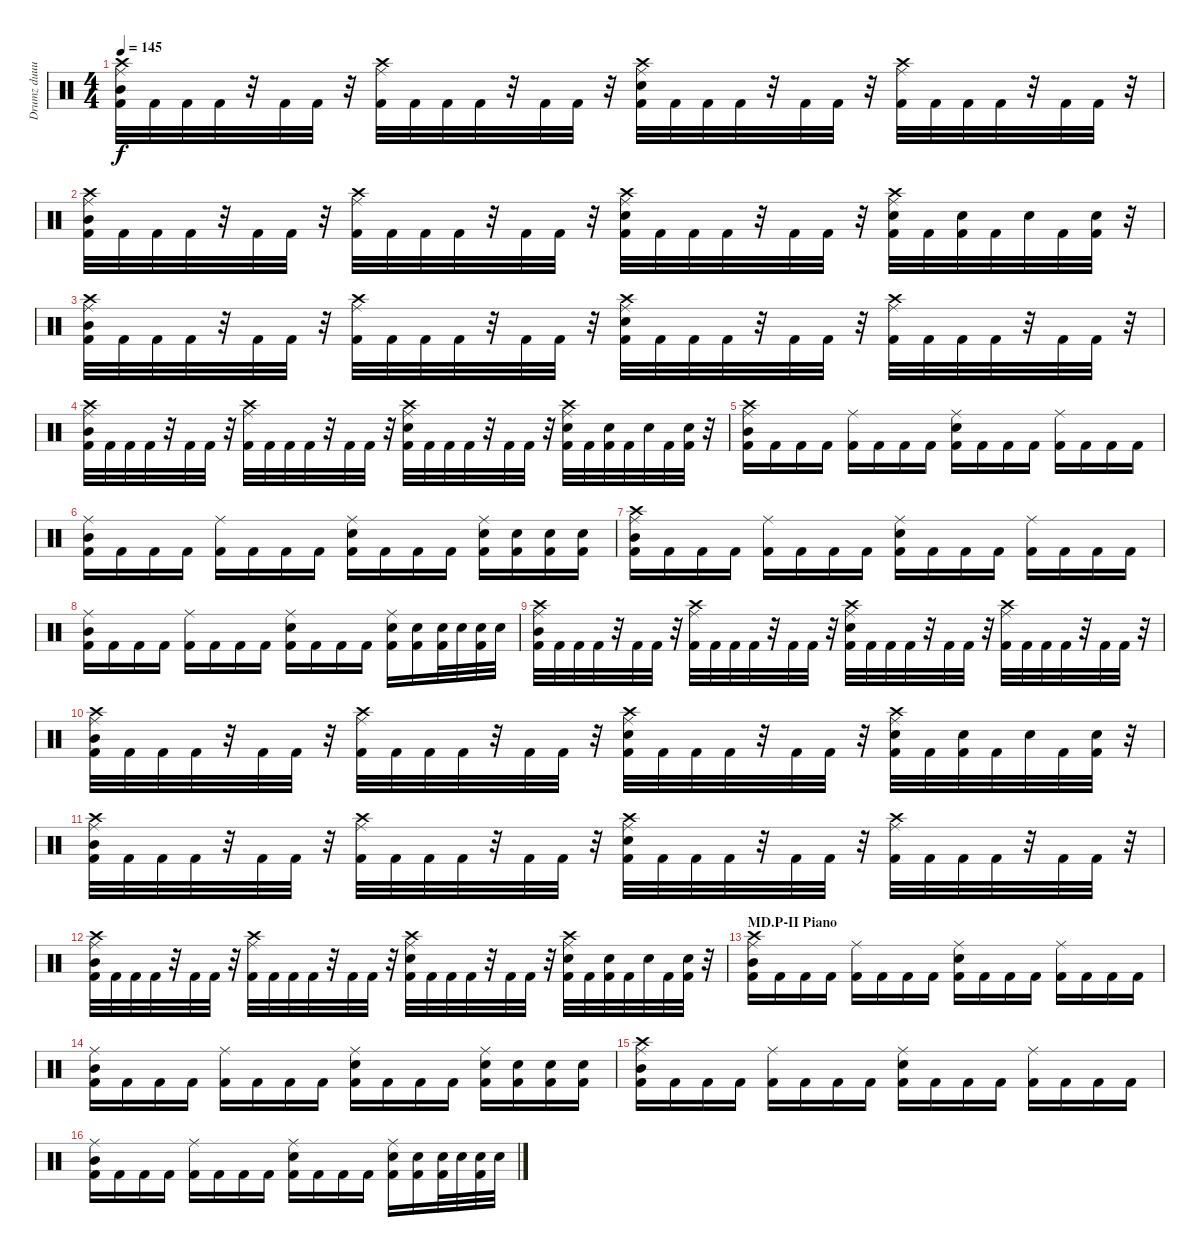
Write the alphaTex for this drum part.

\track ("Drumz duuuuude" "Drumz duuu") {instrument percussion}
\staff {score}
\articulation defaults
\ts (4 4)
\tempo 145
\clef neutral
\ks c
("Crash high (hit)" "Ride (middle)" "Kick (hit) 2" "Mid Tom (hit)").32{dy f} "Kick (hit) 2".32 "Kick (hit) 2".32 "Kick (hit) 2".32 r.32 "Kick (hit) 2".32 "Kick (hit) 2".32 r.32 ("Crash high (hit)" "Ride (middle)" "Kick (hit) 2").32 "Kick (hit) 2".32 "Kick (hit) 2".32 "Kick (hit) 2".32 r.32 "Kick (hit) 2".32 "Kick (hit) 2".32 r.32 ("Crash high (hit)" "Ride (middle)" "Kick (hit) 2" "Electric Snare (hit)").32 "Kick (hit) 2".32 "Kick (hit) 2".32 "Kick (hit) 2".32 r.32 "Kick (hit) 2".32 "Kick (hit) 2".32 r.32 ("Crash high (hit)" "Ride (middle)" "Kick (hit) 2").32 "Kick (hit) 2".32 "Kick (hit) 2".32 "Kick (hit) 2".32 r.32 "Kick (hit) 2".32 "Kick (hit) 2".32 r.32 |
("Crash high (hit)" "Ride (middle)" "Kick (hit) 2" "Mid Tom (hit)").32 "Kick (hit) 2".32 "Kick (hit) 2".32 "Kick (hit) 2".32 r.32 "Kick (hit) 2".32 "Kick (hit) 2".32 r.32 ("Crash high (hit)" "Ride (middle)" "Kick (hit) 2").32 "Kick (hit) 2".32 "Kick (hit) 2".32 "Kick (hit) 2".32 r.32 "Kick (hit) 2".32 "Kick (hit) 2".32 r.32 ("Crash high (hit)" "Ride (middle)" "Kick (hit) 2" "Electric Snare (hit)").32 "Kick (hit) 2".32 "Kick (hit) 2".32 "Kick (hit) 2".32 r.32 "Kick (hit) 2".32 "Kick (hit) 2".32 r.32 ("Crash high (hit)" "Ride (middle)" "Kick (hit) 2" "Electric Snare (hit)").32 "Kick (hit) 2".32 ("Kick (hit) 2" "Electric Snare (hit)").32 "Kick (hit) 2".32 "Electric Snare (hit)".32 "Kick (hit) 2".32 ("Kick (hit) 2" "Electric Snare (hit)").32 r.32 |
("Crash high (hit)" "Ride (middle)" "Kick (hit) 2" "Mid Tom (hit)").32 "Kick (hit) 2".32 "Kick (hit) 2".32 "Kick (hit) 2".32 r.32 "Kick (hit) 2".32 "Kick (hit) 2".32 r.32 ("Crash high (hit)" "Ride (middle)" "Kick (hit) 2").32 "Kick (hit) 2".32 "Kick (hit) 2".32 "Kick (hit) 2".32 r.32 "Kick (hit) 2".32 "Kick (hit) 2".32 r.32 ("Crash high (hit)" "Ride (middle)" "Kick (hit) 2" "Electric Snare (hit)").32 "Kick (hit) 2".32 "Kick (hit) 2".32 "Kick (hit) 2".32 r.32 "Kick (hit) 2".32 "Kick (hit) 2".32 r.32 ("Crash high (hit)" "Ride (middle)" "Kick (hit) 2").32 "Kick (hit) 2".32 "Kick (hit) 2".32 "Kick (hit) 2".32 r.32 "Kick (hit) 2".32 "Kick (hit) 2".32 r.32 |
("Crash high (hit)" "Ride (middle)" "Kick (hit) 2" "Mid Tom (hit)").32 "Kick (hit) 2".32 "Kick (hit) 2".32 "Kick (hit) 2".32 r.32 "Kick (hit) 2".32 "Kick (hit) 2".32 r.32 ("Crash high (hit)" "Ride (middle)" "Kick (hit) 2").32 "Kick (hit) 2".32 "Kick (hit) 2".32 "Kick (hit) 2".32 r.32 "Kick (hit) 2".32 "Kick (hit) 2".32 r.32 ("Crash high (hit)" "Ride (middle)" "Kick (hit) 2" "Electric Snare (hit)").32 "Kick (hit) 2".32 "Kick (hit) 2".32 "Kick (hit) 2".32 r.32 "Kick (hit) 2".32 "Kick (hit) 2".32 r.32 ("Crash high (hit)" "Ride (middle)" "Kick (hit) 2" "Electric Snare (hit)").32 "Kick (hit) 2".32 ("Kick (hit) 2" "Electric Snare (hit)").32 "Kick (hit) 2".32 "Electric Snare (hit)".32 "Kick (hit) 2".32 ("Kick (hit) 2" "Electric Snare (hit)").32 r.32 |
("Crash high (hit)" "Ride (middle)" "Kick (hit) 2" "Mid Tom (hit)").16 "Kick (hit) 2".16 "Kick (hit) 2".16 "Kick (hit) 2".16 ("Ride (middle)" "Kick (hit) 2").16 "Kick (hit) 2".16 "Kick (hit) 2".16 "Kick (hit) 2".16 ("Ride (middle)" "Kick (hit) 2" "Electric Snare (hit)").16 "Kick (hit) 2".16 "Kick (hit) 2".16 "Kick (hit) 2".16 ("Ride (middle)" "Kick (hit) 2").16 "Kick (hit) 2".16 "Kick (hit) 2".16 "Kick (hit) 2".16 |
("Ride (middle)" "Kick (hit) 2" "Mid Tom (hit)").16 "Kick (hit) 2".16 "Kick (hit) 2".16 "Kick (hit) 2".16 ("Ride (middle)" "Kick (hit) 2").16 "Kick (hit) 2".16 "Kick (hit) 2".16 "Kick (hit) 2".16 ("Ride (middle)" "Kick (hit) 2" "Electric Snare (hit)").16 "Kick (hit) 2".16 "Kick (hit) 2".16 "Kick (hit) 2".16 ("Ride (middle)" "Kick (hit) 2" "Electric Snare (hit)").16 ("Kick (hit) 2" "Electric Snare (hit)").16 ("Kick (hit) 2" "Electric Snare (hit)").16 ("Kick (hit) 2" "Electric Snare (hit)").16 |
("Crash high (hit)" "Ride (middle)" "Kick (hit) 2" "Mid Tom (hit)").16 "Kick (hit) 2".16 "Kick (hit) 2".16 "Kick (hit) 2".16 ("Ride (middle)" "Kick (hit) 2").16 "Kick (hit) 2".16 "Kick (hit) 2".16 "Kick (hit) 2".16 ("Ride (middle)" "Kick (hit) 2" "Electric Snare (hit)").16 "Kick (hit) 2".16 "Kick (hit) 2".16 "Kick (hit) 2".16 ("Ride (middle)" "Kick (hit) 2").16 "Kick (hit) 2".16 "Kick (hit) 2".16 "Kick (hit) 2".16 |
("Ride (middle)" "Kick (hit) 2" "Mid Tom (hit)").16 "Kick (hit) 2".16 "Kick (hit) 2".16 "Kick (hit) 2".16 ("Ride (middle)" "Kick (hit) 2").16 "Kick (hit) 2".16 "Kick (hit) 2".16 "Kick (hit) 2".16 ("Ride (middle)" "Kick (hit) 2" "Electric Snare (hit)").16 "Kick (hit) 2".16 "Kick (hit) 2".16 "Kick (hit) 2".16 ("Ride (middle)" "Kick (hit) 2" "Electric Snare (hit)").16 ("Kick (hit) 2" "Electric Snare (hit)").16 ("Kick (hit) 2" "Electric Snare (hit)").32 "Electric Snare (hit)".32 ("Kick (hit) 2" "Electric Snare (hit)").32 "Electric Snare (hit)".32 |
("Crash high (hit)" "Ride (middle)" "Kick (hit) 2" "Mid Tom (hit)").32 "Kick (hit) 2".32 "Kick (hit) 2".32 "Kick (hit) 2".32 r.32 "Kick (hit) 2".32 "Kick (hit) 2".32 r.32 ("Crash high (hit)" "Ride (middle)" "Kick (hit) 2").32 "Kick (hit) 2".32 "Kick (hit) 2".32 "Kick (hit) 2".32 r.32 "Kick (hit) 2".32 "Kick (hit) 2".32 r.32 ("Crash high (hit)" "Ride (middle)" "Kick (hit) 2" "Electric Snare (hit)").32 "Kick (hit) 2".32 "Kick (hit) 2".32 "Kick (hit) 2".32 r.32 "Kick (hit) 2".32 "Kick (hit) 2".32 r.32 ("Crash high (hit)" "Ride (middle)" "Kick (hit) 2").32 "Kick (hit) 2".32 "Kick (hit) 2".32 "Kick (hit) 2".32 r.32 "Kick (hit) 2".32 "Kick (hit) 2".32 r.32 |
("Crash high (hit)" "Ride (middle)" "Kick (hit) 2" "Mid Tom (hit)").32 "Kick (hit) 2".32 "Kick (hit) 2".32 "Kick (hit) 2".32 r.32 "Kick (hit) 2".32 "Kick (hit) 2".32 r.32 ("Crash high (hit)" "Ride (middle)" "Kick (hit) 2").32 "Kick (hit) 2".32 "Kick (hit) 2".32 "Kick (hit) 2".32 r.32 "Kick (hit) 2".32 "Kick (hit) 2".32 r.32 ("Crash high (hit)" "Ride (middle)" "Kick (hit) 2" "Electric Snare (hit)").32 "Kick (hit) 2".32 "Kick (hit) 2".32 "Kick (hit) 2".32 r.32 "Kick (hit) 2".32 "Kick (hit) 2".32 r.32 ("Crash high (hit)" "Ride (middle)" "Kick (hit) 2" "Electric Snare (hit)").32 "Kick (hit) 2".32 ("Kick (hit) 2" "Electric Snare (hit)").32 "Kick (hit) 2".32 "Electric Snare (hit)".32 "Kick (hit) 2".32 ("Kick (hit) 2" "Electric Snare (hit)").32 r.32 |
("Crash high (hit)" "Ride (middle)" "Kick (hit) 2" "Mid Tom (hit)").32 "Kick (hit) 2".32 "Kick (hit) 2".32 "Kick (hit) 2".32 r.32 "Kick (hit) 2".32 "Kick (hit) 2".32 r.32 ("Crash high (hit)" "Ride (middle)" "Kick (hit) 2").32 "Kick (hit) 2".32 "Kick (hit) 2".32 "Kick (hit) 2".32 r.32 "Kick (hit) 2".32 "Kick (hit) 2".32 r.32 ("Crash high (hit)" "Ride (middle)" "Kick (hit) 2" "Electric Snare (hit)").32 "Kick (hit) 2".32 "Kick (hit) 2".32 "Kick (hit) 2".32 r.32 "Kick (hit) 2".32 "Kick (hit) 2".32 r.32 ("Crash high (hit)" "Ride (middle)" "Kick (hit) 2").32 "Kick (hit) 2".32 "Kick (hit) 2".32 "Kick (hit) 2".32 r.32 "Kick (hit) 2".32 "Kick (hit) 2".32 r.32 |
("Crash high (hit)" "Ride (middle)" "Kick (hit) 2" "Mid Tom (hit)").32 "Kick (hit) 2".32 "Kick (hit) 2".32 "Kick (hit) 2".32 r.32 "Kick (hit) 2".32 "Kick (hit) 2".32 r.32 ("Crash high (hit)" "Ride (middle)" "Kick (hit) 2").32 "Kick (hit) 2".32 "Kick (hit) 2".32 "Kick (hit) 2".32 r.32 "Kick (hit) 2".32 "Kick (hit) 2".32 r.32 ("Crash high (hit)" "Ride (middle)" "Kick (hit) 2" "Electric Snare (hit)").32 "Kick (hit) 2".32 "Kick (hit) 2".32 "Kick (hit) 2".32 r.32 "Kick (hit) 2".32 "Kick (hit) 2".32 r.32 ("Crash high (hit)" "Ride (middle)" "Kick (hit) 2" "Electric Snare (hit)").32 "Kick (hit) 2".32 ("Kick (hit) 2" "Electric Snare (hit)").32 "Kick (hit) 2".32 "Electric Snare (hit)".32 "Kick (hit) 2".32 ("Kick (hit) 2" "Electric Snare (hit)").32 r.32 |
\section ("" "MD.P-II Piano ")
("Crash high (hit)" "Ride (middle)" "Kick (hit) 2" "Mid Tom (hit)").16 "Kick (hit) 2".16 "Kick (hit) 2".16 "Kick (hit) 2".16 ("Ride (middle)" "Kick (hit) 2").16 "Kick (hit) 2".16 "Kick (hit) 2".16 "Kick (hit) 2".16 ("Ride (middle)" "Kick (hit) 2" "Electric Snare (hit)").16 "Kick (hit) 2".16 "Kick (hit) 2".16 "Kick (hit) 2".16 ("Ride (middle)" "Kick (hit) 2").16 "Kick (hit) 2".16 "Kick (hit) 2".16 "Kick (hit) 2".16 |
("Ride (middle)" "Kick (hit) 2" "Mid Tom (hit)").16 "Kick (hit) 2".16 "Kick (hit) 2".16 "Kick (hit) 2".16 ("Ride (middle)" "Kick (hit) 2").16 "Kick (hit) 2".16 "Kick (hit) 2".16 "Kick (hit) 2".16 ("Ride (middle)" "Kick (hit) 2" "Electric Snare (hit)").16 "Kick (hit) 2".16 "Kick (hit) 2".16 "Kick (hit) 2".16 ("Ride (middle)" "Kick (hit) 2" "Electric Snare (hit)").16 ("Kick (hit) 2" "Electric Snare (hit)").16 ("Kick (hit) 2" "Electric Snare (hit)").16 ("Kick (hit) 2" "Electric Snare (hit)").16 |
("Crash high (hit)" "Ride (middle)" "Kick (hit) 2" "Mid Tom (hit)").16 "Kick (hit) 2".16 "Kick (hit) 2".16 "Kick (hit) 2".16 ("Ride (middle)" "Kick (hit) 2").16 "Kick (hit) 2".16 "Kick (hit) 2".16 "Kick (hit) 2".16 ("Ride (middle)" "Kick (hit) 2" "Electric Snare (hit)").16 "Kick (hit) 2".16 "Kick (hit) 2".16 "Kick (hit) 2".16 ("Ride (middle)" "Kick (hit) 2").16 "Kick (hit) 2".16 "Kick (hit) 2".16 "Kick (hit) 2".16 |
("Ride (middle)" "Kick (hit) 2" "Mid Tom (hit)").16 "Kick (hit) 2".16 "Kick (hit) 2".16 "Kick (hit) 2".16 ("Ride (middle)" "Kick (hit) 2").16 "Kick (hit) 2".16 "Kick (hit) 2".16 "Kick (hit) 2".16 ("Ride (middle)" "Kick (hit) 2" "Electric Snare (hit)").16 "Kick (hit) 2".16 "Kick (hit) 2".16 "Kick (hit) 2".16 ("Ride (middle)" "Kick (hit) 2" "Electric Snare (hit)").16 ("Kick (hit) 2" "Electric Snare (hit)").16 ("Kick (hit) 2" "Electric Snare (hit)").32 "Electric Snare (hit)".32 ("Kick (hit) 2" "Electric Snare (hit)").32 "Electric Snare (hit)".32
